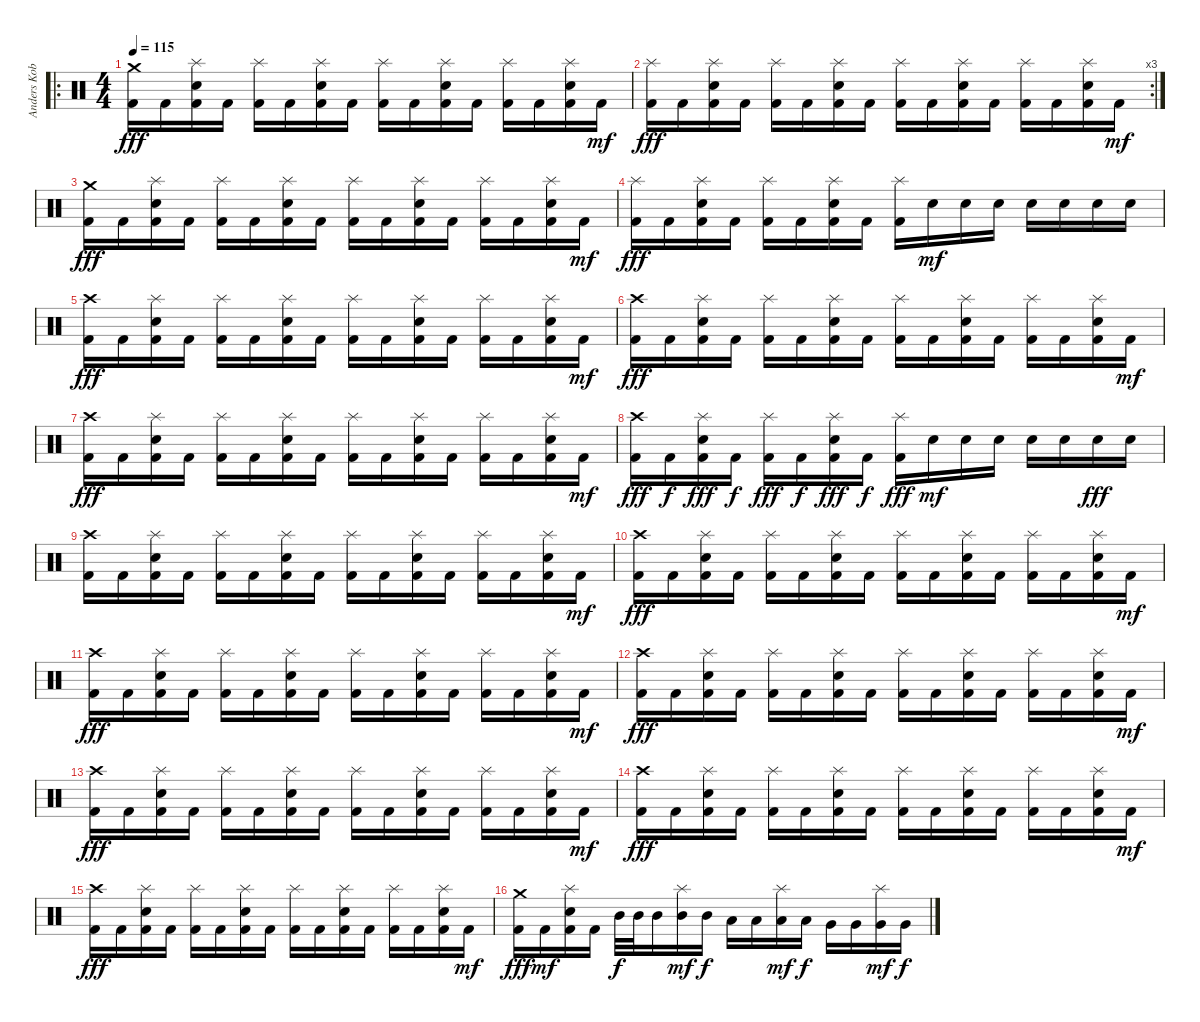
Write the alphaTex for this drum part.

\track ("Anders Kobro " "Anders Kob") {instrument percussion}
\staff {score}
\articulation defaults
\ro
\ts (4 4)
\tempo 115
\clef neutral
\ks c
("Crash medium (hit)" "Kick (hit) 2").16{dy fff} "Kick (hit) 2".16 ("Splash (hit)" "Snare (hit) 2" "Kick (hit) 2").16 "Kick (hit) 2".16 ("Splash (hit)" "Kick (hit) 2").16 "Kick (hit) 2".16 ("Splash (hit)" "Snare (hit) 2" "Kick (hit) 2").16 "Kick (hit) 2".16 ("Splash (hit)" "Kick (hit) 2").16 "Kick (hit) 2".16 ("Splash (hit)" "Snare (hit) 2" "Kick (hit) 2").16 "Kick (hit) 2".16 ("Splash (hit)" "Kick (hit) 2").16 "Kick (hit) 2".16 ("Splash (hit)" "Snare (hit) 2" "Kick (hit) 2").16 "Kick (hit) 2".16{dy mf} |
\rc 3
("Splash (hit)" "Kick (hit) 2").16{dy fff} "Kick (hit) 2".16 ("Splash (hit)" "Snare (hit) 2" "Kick (hit) 2").16 "Kick (hit) 2".16 ("Splash (hit)" "Kick (hit) 2").16 "Kick (hit) 2".16 ("Splash (hit)" "Snare (hit) 2" "Kick (hit) 2").16 "Kick (hit) 2".16 ("Splash (hit)" "Kick (hit) 2").16 "Kick (hit) 2".16 ("Splash (hit)" "Snare (hit) 2" "Kick (hit) 2").16 "Kick (hit) 2".16 ("Splash (hit)" "Kick (hit) 2").16 "Kick (hit) 2".16 ("Splash (hit)" "Snare (hit) 2" "Kick (hit) 2").16 "Kick (hit) 2".16{dy mf} |
("Crash medium (hit)" "Kick (hit) 2").16{dy fff} "Kick (hit) 2".16 ("Splash (hit)" "Snare (hit) 2" "Kick (hit) 2").16 "Kick (hit) 2".16 ("Splash (hit)" "Kick (hit) 2").16 "Kick (hit) 2".16 ("Splash (hit)" "Snare (hit) 2" "Kick (hit) 2").16 "Kick (hit) 2".16 ("Splash (hit)" "Kick (hit) 2").16 "Kick (hit) 2".16 ("Splash (hit)" "Snare (hit) 2" "Kick (hit) 2").16 "Kick (hit) 2".16 ("Splash (hit)" "Kick (hit) 2").16 "Kick (hit) 2".16 ("Splash (hit)" "Snare (hit) 2" "Kick (hit) 2").16 "Kick (hit) 2".16{dy mf} |
("Splash (hit)" "Kick (hit) 2").16{dy fff} "Kick (hit) 2".16 ("Splash (hit)" "Snare (hit) 2" "Kick (hit) 2").16 "Kick (hit) 2".16 ("Splash (hit)" "Kick (hit) 2").16 "Kick (hit) 2".16 ("Splash (hit)" "Snare (hit) 2" "Kick (hit) 2").16 "Kick (hit) 2".16 ("Splash (hit)" "Kick (hit) 2").16 "Snare (hit) 2".16{dy mf} "Snare (hit) 2".16 "Snare (hit) 2".16 "Snare (hit) 2".16 "Snare (hit) 2".16 "Snare (hit) 2".16 "Snare (hit) 2".16 |
("Crash high (hit)" "Kick (hit) 2").16{dy fff} "Kick (hit) 2".16 ("Splash (hit)" "Snare (hit) 2" "Kick (hit) 2").16 "Kick (hit) 2".16 ("Splash (hit)" "Kick (hit) 2").16 "Kick (hit) 2".16 ("Splash (hit)" "Snare (hit) 2" "Kick (hit) 2").16 "Kick (hit) 2".16 ("Splash (hit)" "Kick (hit) 2").16 "Kick (hit) 2".16 ("Splash (hit)" "Snare (hit) 2" "Kick (hit) 2").16 "Kick (hit) 2".16 ("Splash (hit)" "Kick (hit) 2").16 "Kick (hit) 2".16 ("Splash (hit)" "Snare (hit) 2" "Kick (hit) 2").16 "Kick (hit) 2".16{dy mf} |
("Crash high (hit)" "Kick (hit) 2").16{dy fff} "Kick (hit) 2".16 ("Splash (hit)" "Snare (hit) 2" "Kick (hit) 2").16 "Kick (hit) 2".16 ("Splash (hit)" "Kick (hit) 2").16 "Kick (hit) 2".16 ("Splash (hit)" "Snare (hit) 2" "Kick (hit) 2").16 "Kick (hit) 2".16 ("Splash (hit)" "Kick (hit) 2").16 "Kick (hit) 2".16 ("Splash (hit)" "Snare (hit) 2" "Kick (hit) 2").16 "Kick (hit) 2".16 ("Splash (hit)" "Kick (hit) 2").16 "Kick (hit) 2".16 ("Splash (hit)" "Snare (hit) 2" "Kick (hit) 2").16 "Kick (hit) 2".16{dy mf} |
("Crash high (hit)" "Kick (hit) 2").16{dy fff} "Kick (hit) 2".16 ("Splash (hit)" "Snare (hit) 2" "Kick (hit) 2").16 "Kick (hit) 2".16 ("Splash (hit)" "Kick (hit) 2").16 "Kick (hit) 2".16 ("Splash (hit)" "Snare (hit) 2" "Kick (hit) 2").16 "Kick (hit) 2".16 ("Splash (hit)" "Kick (hit) 2").16 "Kick (hit) 2".16 ("Splash (hit)" "Snare (hit) 2" "Kick (hit) 2").16 "Kick (hit) 2".16 ("Splash (hit)" "Kick (hit) 2").16 "Kick (hit) 2".16 ("Splash (hit)" "Snare (hit) 2" "Kick (hit) 2").16 "Kick (hit) 2".16{dy mf} |
("Crash high (hit)" "Kick (hit) 2").16{dy fff} "Kick (hit) 2".16{dy f} ("Splash (hit)" "Snare (hit) 2" "Kick (hit) 2").16{dy fff} "Kick (hit) 2".16{dy f} ("Splash (hit)" "Kick (hit) 2").16{dy fff} "Kick (hit) 2".16{dy f} ("Splash (hit)" "Snare (hit) 2" "Kick (hit) 2").16{dy fff} "Kick (hit) 2".16{dy f} ("Splash (hit)" "Kick (hit) 2").16{dy fff} "Snare (hit) 2".16{dy mf} "Snare (hit) 2".16 "Snare (hit) 2".16 "Snare (hit) 2".16 "Snare (hit) 2".16 "Snare (hit) 2".16{dy fff} "Snare (hit) 2".16 |
("Crash high (hit)" "Kick (hit) 2").16 "Kick (hit) 2".16 ("Splash (hit)" "Snare (hit) 2" "Kick (hit) 2").16 "Kick (hit) 2".16 ("Splash (hit)" "Kick (hit) 2").16 "Kick (hit) 2".16 ("Splash (hit)" "Snare (hit) 2" "Kick (hit) 2").16 "Kick (hit) 2".16 ("Splash (hit)" "Kick (hit) 2").16 "Kick (hit) 2".16 ("Splash (hit)" "Snare (hit) 2" "Kick (hit) 2").16 "Kick (hit) 2".16 ("Splash (hit)" "Kick (hit) 2").16 "Kick (hit) 2".16 ("Splash (hit)" "Snare (hit) 2" "Kick (hit) 2").16 "Kick (hit) 2".16{dy mf} |
("Crash high (hit)" "Kick (hit) 2").16{dy fff} "Kick (hit) 2".16 ("Splash (hit)" "Snare (hit) 2" "Kick (hit) 2").16 "Kick (hit) 2".16 ("Splash (hit)" "Kick (hit) 2").16 "Kick (hit) 2".16 ("Splash (hit)" "Snare (hit) 2" "Kick (hit) 2").16 "Kick (hit) 2".16 ("Splash (hit)" "Kick (hit) 2").16 "Kick (hit) 2".16 ("Splash (hit)" "Snare (hit) 2" "Kick (hit) 2").16 "Kick (hit) 2".16 ("Splash (hit)" "Kick (hit) 2").16 "Kick (hit) 2".16 ("Splash (hit)" "Snare (hit) 2" "Kick (hit) 2").16 "Kick (hit) 2".16{dy mf} |
("Crash high (hit)" "Kick (hit) 2").16{dy fff} "Kick (hit) 2".16 ("Splash (hit)" "Snare (hit) 2" "Kick (hit) 2").16 "Kick (hit) 2".16 ("Splash (hit)" "Kick (hit) 2").16 "Kick (hit) 2".16 ("Splash (hit)" "Snare (hit) 2" "Kick (hit) 2").16 "Kick (hit) 2".16 ("Splash (hit)" "Kick (hit) 2").16 "Kick (hit) 2".16 ("Splash (hit)" "Snare (hit) 2" "Kick (hit) 2").16 "Kick (hit) 2".16 ("Splash (hit)" "Kick (hit) 2").16 "Kick (hit) 2".16 ("Splash (hit)" "Snare (hit) 2" "Kick (hit) 2").16 "Kick (hit) 2".16{dy mf} |
("Crash high (hit)" "Kick (hit) 2").16{dy fff} "Kick (hit) 2".16 ("Splash (hit)" "Snare (hit) 2" "Kick (hit) 2").16 "Kick (hit) 2".16 ("Splash (hit)" "Kick (hit) 2").16 "Kick (hit) 2".16 ("Splash (hit)" "Snare (hit) 2" "Kick (hit) 2").16 "Kick (hit) 2".16 ("Splash (hit)" "Kick (hit) 2").16 "Kick (hit) 2".16 ("Splash (hit)" "Snare (hit) 2" "Kick (hit) 2").16 "Kick (hit) 2".16 ("Splash (hit)" "Kick (hit) 2").16 "Kick (hit) 2".16 ("Splash (hit)" "Snare (hit) 2" "Kick (hit) 2").16 "Kick (hit) 2".16{dy mf} |
("Crash high (hit)" "Kick (hit) 2").16{dy fff} "Kick (hit) 2".16 ("Splash (hit)" "Snare (hit) 2" "Kick (hit) 2").16 "Kick (hit) 2".16 ("Splash (hit)" "Kick (hit) 2").16 "Kick (hit) 2".16 ("Splash (hit)" "Snare (hit) 2" "Kick (hit) 2").16 "Kick (hit) 2".16 ("Splash (hit)" "Kick (hit) 2").16 "Kick (hit) 2".16 ("Splash (hit)" "Snare (hit) 2" "Kick (hit) 2").16 "Kick (hit) 2".16 ("Splash (hit)" "Kick (hit) 2").16 "Kick (hit) 2".16 ("Splash (hit)" "Snare (hit) 2" "Kick (hit) 2").16 "Kick (hit) 2".16{dy mf} |
("Crash high (hit)" "Kick (hit) 2").16{dy fff} "Kick (hit) 2".16 ("Splash (hit)" "Snare (hit) 2" "Kick (hit) 2").16 "Kick (hit) 2".16 ("Splash (hit)" "Kick (hit) 2").16 "Kick (hit) 2".16 ("Splash (hit)" "Snare (hit) 2" "Kick (hit) 2").16 "Kick (hit) 2".16 ("Splash (hit)" "Kick (hit) 2").16 "Kick (hit) 2".16 ("Splash (hit)" "Snare (hit) 2" "Kick (hit) 2").16 "Kick (hit) 2".16 ("Splash (hit)" "Kick (hit) 2").16 "Kick (hit) 2".16 ("Splash (hit)" "Snare (hit) 2" "Kick (hit) 2").16 "Kick (hit) 2".16{dy mf} |
("Crash high (hit)" "Kick (hit) 2").16{dy fff} "Kick (hit) 2".16 ("Splash (hit)" "Snare (hit) 2" "Kick (hit) 2").16 "Kick (hit) 2".16 ("Splash (hit)" "Kick (hit) 2").16 "Kick (hit) 2".16 ("Splash (hit)" "Snare (hit) 2" "Kick (hit) 2").16 "Kick (hit) 2".16 ("Splash (hit)" "Kick (hit) 2").16 "Kick (hit) 2".16 ("Splash (hit)" "Snare (hit) 2" "Kick (hit) 2").16 "Kick (hit) 2".16 ("Splash (hit)" "Kick (hit) 2").16 "Kick (hit) 2".16 ("Splash (hit)" "Snare (hit) 2" "Kick (hit) 2").16 "Kick (hit) 2".16{dy mf} |
("Crash medium (hit)" "Kick (hit) 2").16{dy fff} "Kick (hit) 2".16{dy mf} ("Splash (hit)" "Snare (hit) 2" "Kick (hit) 2").16 "Kick (hit) 2".16 "Mid Tom (hit)".32{dy f} "Mid Tom (hit)".32 "Mid Tom (hit)".16 ("Splash (hit)" "Mid Tom (hit)").16{dy mf} "Mid Tom (hit)".16{dy f} "Low Tom (hit)".16 "Low Tom (hit)".16 ("Splash (hit)" "Low Tom (hit)").16{dy mf} "Low Tom (hit)".16{dy f} "Very Low Tom (hit)".16 "Very Low Tom (hit)".16 ("Splash (hit)" "Very Low Tom (hit)").16{dy mf} "Very Low Tom (hit)".16{dy f}
